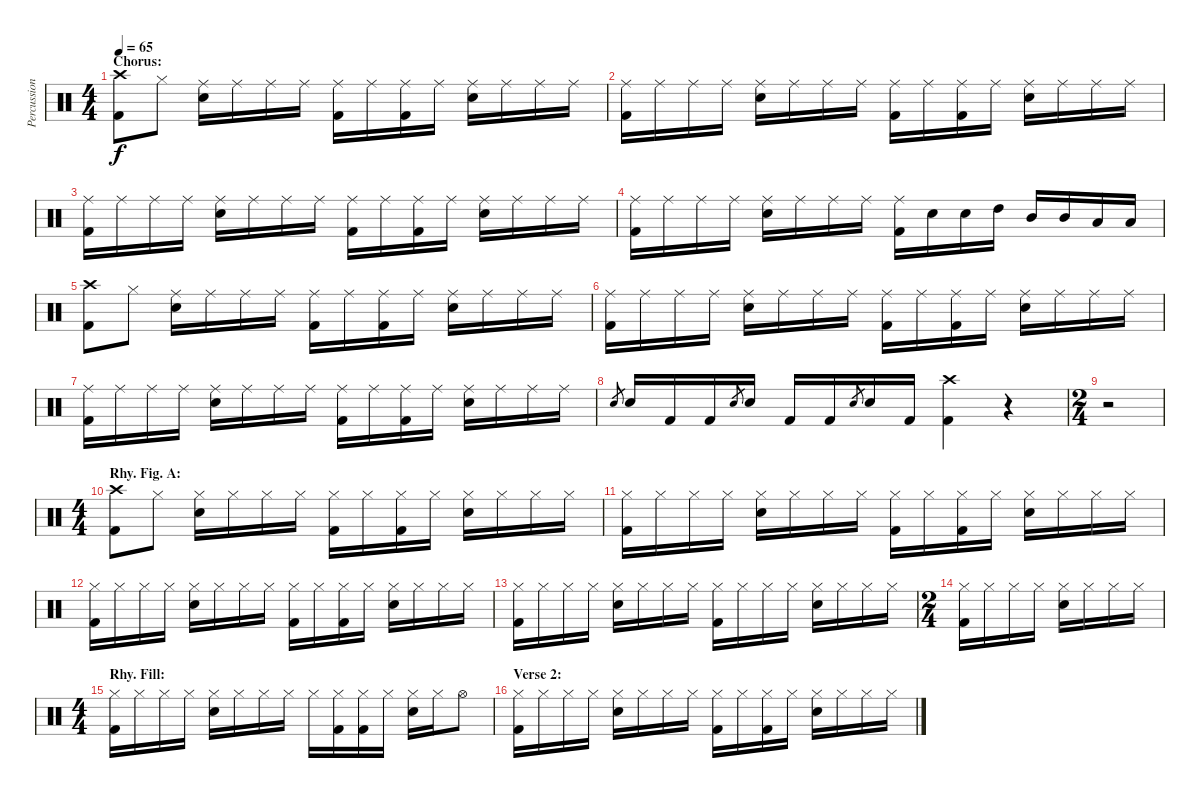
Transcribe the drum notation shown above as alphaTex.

\track ("Percussion" "Percussion") {instrument percussion}
\staff {score}
\articulation defaults
\ts (4 4)
\section ("" "Chorus:")
\tempo 65
\clef neutral
\ks c
("Crash high (hit)" "Kick (hit) 2").8{dy f} "Hi-Hat (closed)".8 ("Ride (middle)" "Electric Snare (hit)").16 "Ride (middle)".16 "Ride (middle)".16 "Ride (middle)".16 ("Ride (middle)" "Kick (hit) 2").16 "Ride (middle)".16 ("Ride (middle)" "Kick (hit) 2").16 "Ride (middle)".16 ("Ride (middle)" "Electric Snare (hit)").16 "Ride (middle)".16 "Ride (middle)".16 "Ride (middle)".16 |
("Ride (middle)" "Kick (hit) 2").16 "Ride (middle)".16 "Ride (middle)".16 "Ride (middle)".16 ("Ride (middle)" "Electric Snare (hit)").16 "Ride (middle)".16 "Ride (middle)".16 "Ride (middle)".16 ("Ride (middle)" "Kick (hit) 2").16 "Ride (middle)".16 ("Ride (middle)" "Kick (hit) 2").16 "Ride (middle)".16 ("Ride (middle)" "Electric Snare (hit)").16 "Ride (middle)".16 "Ride (middle)".16 "Ride (middle)".16 |
("Ride (middle)" "Kick (hit) 2").16 "Ride (middle)".16 "Ride (middle)".16 "Ride (middle)".16 ("Ride (middle)" "Electric Snare (hit)").16 "Ride (middle)".16 "Ride (middle)".16 "Ride (middle)".16 ("Ride (middle)" "Kick (hit) 2").16 "Ride (middle)".16 ("Ride (middle)" "Kick (hit) 2").16 "Ride (middle)".16 ("Ride (middle)" "Electric Snare (hit)").16 "Ride (middle)".16 "Ride (middle)".16 "Ride (middle)".16 |
("Ride (middle)" "Kick (hit) 2").16 "Ride (middle)".16 "Ride (middle)".16 "Ride (middle)".16 ("Ride (middle)" "Electric Snare (hit)").16 "Ride (middle)".16 "Ride (middle)".16 "Ride (middle)".16 ("Ride (middle)" "Kick (hit) 2").16 "Electric Snare (hit)".16 "Electric Snare (hit)".16 "High Tom (hit)".16 "Mid Tom (hit)".16 "Mid Tom (hit)".16 "Low Tom (hit)".16 "Low Tom (hit)".16 |
("Crash high (hit)" "Kick (hit) 2").8 "Hi-Hat (closed)".8 ("Ride (middle)" "Electric Snare (hit)").16 "Ride (middle)".16 "Ride (middle)".16 "Ride (middle)".16 ("Ride (middle)" "Kick (hit) 2").16 "Ride (middle)".16 ("Ride (middle)" "Kick (hit) 2").16 "Ride (middle)".16 ("Ride (middle)" "Electric Snare (hit)").16 "Ride (middle)".16 "Ride (middle)".16 "Ride (middle)".16 |
("Ride (middle)" "Kick (hit) 2").16 "Ride (middle)".16 "Ride (middle)".16 "Ride (middle)".16 ("Ride (middle)" "Electric Snare (hit)").16 "Ride (middle)".16 "Ride (middle)".16 "Ride (middle)".16 ("Ride (middle)" "Kick (hit) 2").16 "Ride (middle)".16 ("Ride (middle)" "Kick (hit) 2").16 "Ride (middle)".16 ("Ride (middle)" "Electric Snare (hit)").16 "Ride (middle)".16 "Ride (middle)".16 "Ride (middle)".16 |
("Ride (middle)" "Kick (hit) 2").16 "Ride (middle)".16 "Ride (middle)".16 "Ride (middle)".16 ("Ride (middle)" "Electric Snare (hit)").16 "Ride (middle)".16 "Ride (middle)".16 "Ride (middle)".16 ("Ride (middle)" "Kick (hit) 2").16 "Ride (middle)".16 ("Ride (middle)" "Kick (hit) 2").16 "Ride (middle)".16 ("Ride (middle)" "Electric Snare (hit)").16 "Ride (middle)".16 "Ride (middle)".16 "Ride (middle)".16 |
"Electric Snare (hit)".8{gr} "Electric Snare (hit)".16 "Kick (hit) 2".16 "Kick (hit) 2".16 "Electric Snare (hit)".8{gr} "Electric Snare (hit)".16 "Kick (hit) 2".16 "Kick (hit) 2".16 "Electric Snare (hit)".8{gr} "Electric Snare (hit)".16 "Kick (hit) 2".16 ("Crash high (hit)" "Kick (hit) 2").4 r.4 |
\ts (2 4)
r.2 |
\ts (4 4)
\section ("" "Rhy. Fig. A:")
("Crash high (hit)" "Kick (hit) 2").8 "Hi-Hat (closed)".8 ("Hi-Hat (closed)" "Electric Snare (hit)").16 "Hi-Hat (closed)".16 "Hi-Hat (closed)".16 "Hi-Hat (closed)".16 ("Hi-Hat (closed)" "Kick (hit) 2").16 "Hi-Hat (closed)".16 ("Hi-Hat (closed)" "Kick (hit) 2").16 "Hi-Hat (closed)".16 ("Hi-Hat (closed)" "Electric Snare (hit)").16 "Hi-Hat (closed)".16 "Hi-Hat (closed)".16 "Hi-Hat (closed)".16 |
("Hi-Hat (closed)" "Kick (hit) 2").16 "Hi-Hat (closed)".16 "Hi-Hat (closed)".16 "Hi-Hat (closed)".16 ("Hi-Hat (closed)" "Electric Snare (hit)").16 "Hi-Hat (closed)".16 "Hi-Hat (closed)".16 "Hi-Hat (closed)".16 ("Hi-Hat (closed)" "Kick (hit) 2").16 "Hi-Hat (closed)".16 ("Hi-Hat (closed)" "Kick (hit) 2").16 "Hi-Hat (closed)".16 ("Hi-Hat (closed)" "Electric Snare (hit)").16 "Hi-Hat (closed)".16 "Hi-Hat (closed)".16 "Hi-Hat (closed)".16 |
("Hi-Hat (closed)" "Kick (hit) 2").16 "Hi-Hat (closed)".16 "Hi-Hat (closed)".16 "Hi-Hat (closed)".16 ("Hi-Hat (closed)" "Electric Snare (hit)").16 "Hi-Hat (closed)".16 "Hi-Hat (closed)".16 "Hi-Hat (closed)".16 ("Hi-Hat (closed)" "Kick (hit) 2").16 "Hi-Hat (closed)".16 ("Hi-Hat (closed)" "Kick (hit) 2").16 "Hi-Hat (closed)".16 ("Hi-Hat (closed)" "Electric Snare (hit)").16 "Hi-Hat (closed)".16 "Hi-Hat (closed)".16 "Hi-Hat (closed)".16 |
("Hi-Hat (closed)" "Kick (hit) 2").16 "Hi-Hat (closed)".16 "Hi-Hat (closed)".16 "Hi-Hat (closed)".16 ("Hi-Hat (closed)" "Electric Snare (hit)").16 "Hi-Hat (closed)".16 "Hi-Hat (closed)".16 "Hi-Hat (closed)".16 ("Hi-Hat (closed)" "Kick (hit) 2").16 "Hi-Hat (closed)".16 "Hi-Hat (closed)".16 "Hi-Hat (closed)".16 ("Hi-Hat (closed)" "Electric Snare (hit)").16 "Hi-Hat (closed)".16 "Hi-Hat (closed)".16 "Hi-Hat (closed)".16 |
\ts (2 4)
("Hi-Hat (closed)" "Kick (hit) 2").16 "Hi-Hat (closed)".16 "Hi-Hat (closed)".16 "Hi-Hat (closed)".16 ("Hi-Hat (closed)" "Electric Snare (hit)").16 "Hi-Hat (closed)".16 "Hi-Hat (closed)".16 "Hi-Hat (closed)".16 |
\ts (4 4)
\section ("" "Rhy. Fill:")
("Hi-Hat (closed)" "Kick (hit) 2").16 "Hi-Hat (closed)".16 "Hi-Hat (closed)".16 "Hi-Hat (closed)".16 ("Hi-Hat (closed)" "Electric Snare (hit)").16 "Hi-Hat (closed)".16 "Hi-Hat (closed)".16 "Hi-Hat (closed)".16 "Hi-Hat (closed)".16 ("Hi-Hat (closed)" "Kick (hit) 2").16 ("Hi-Hat (closed)" "Kick (hit) 2").16 "Hi-Hat (closed)".16 ("Hi-Hat (closed)" "Electric Snare (hit)").16 "Hi-Hat (closed)".16 "Hi-Hat (open)".8 |
\section ("" "Verse 2:")
("Hi-Hat (closed)" "Kick (hit) 2").16 "Hi-Hat (closed)".16 "Hi-Hat (closed)".16 "Hi-Hat (closed)".16 ("Hi-Hat (closed)" "Electric Snare (hit)").16 "Hi-Hat (closed)".16 "Hi-Hat (closed)".16 "Hi-Hat (closed)".16 ("Hi-Hat (closed)" "Kick (hit) 2").16 "Hi-Hat (closed)".16 ("Hi-Hat (closed)" "Kick (hit) 2").16 "Hi-Hat (closed)".16 ("Hi-Hat (closed)" "Electric Snare (hit)").16 "Hi-Hat (closed)".16 "Hi-Hat (closed)".16 "Hi-Hat (closed)".16
